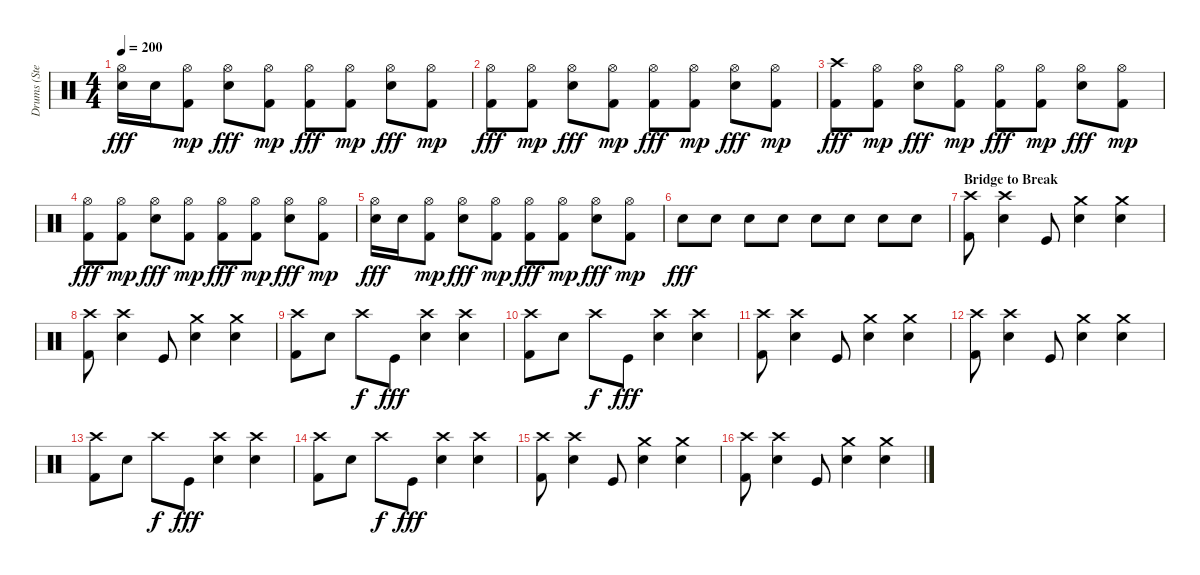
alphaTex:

\track ("Drums (Stevo32)" "Drums (Ste") {instrument percussion}
\staff {score}
\articulation defaults
\ts (4 4)
\tempo 200
\clef neutral
\ks c
("Electric Snare (hit)" "Hi-Hat (open)").16{dy fff} "Electric Snare (hit)".16 ("Kick (hit) 2" "Hi-Hat (open)").8{dy mp} ("Electric Snare (hit)" "Hi-Hat (open)").8{dy fff} ("Kick (hit) 2" "Hi-Hat (open)").8{dy mp} ("Kick (hit) 2" "Hi-Hat (open)").8{dy fff} ("Kick (hit) 2" "Hi-Hat (open)").8{dy mp} ("Electric Snare (hit)" "Hi-Hat (open)").8{dy fff} ("Kick (hit) 2" "Hi-Hat (open)").8{dy mp} |
("Kick (hit) 2" "Hi-Hat (open)").8{dy fff} ("Kick (hit) 2" "Hi-Hat (open)").8{dy mp} ("Electric Snare (hit)" "Hi-Hat (open)").8{dy fff} ("Kick (hit) 2" "Hi-Hat (open)").8{dy mp} ("Kick (hit) 2" "Hi-Hat (open)").8{dy fff} ("Kick (hit) 2" "Hi-Hat (open)").8{dy mp} ("Electric Snare (hit)" "Hi-Hat (open)").8{dy fff} ("Kick (hit) 2" "Hi-Hat (open)").8{dy mp} |
("Kick (hit) 2" "Crash high (hit)").8{dy fff} ("Kick (hit) 2" "Hi-Hat (open)").8{dy mp} ("Electric Snare (hit)" "Hi-Hat (open)").8{dy fff} ("Kick (hit) 2" "Hi-Hat (open)").8{dy mp} ("Kick (hit) 2" "Hi-Hat (open)").8{dy fff} ("Kick (hit) 2" "Hi-Hat (open)").8{dy mp} ("Electric Snare (hit)" "Hi-Hat (open)").8{dy fff} ("Kick (hit) 2" "Hi-Hat (open)").8{dy mp} |
("Kick (hit) 2" "Hi-Hat (open)").8{dy fff} ("Kick (hit) 2" "Hi-Hat (open)").8{dy mp} ("Electric Snare (hit)" "Hi-Hat (open)").8{dy fff} ("Kick (hit) 2" "Hi-Hat (open)").8{dy mp} ("Kick (hit) 2" "Hi-Hat (open)").8{dy fff} ("Kick (hit) 2" "Hi-Hat (open)").8{dy mp} ("Electric Snare (hit)" "Hi-Hat (open)").8{dy fff} ("Kick (hit) 2" "Hi-Hat (open)").8{dy mp} |
("Electric Snare (hit)" "Hi-Hat (open)").16{dy fff} "Electric Snare (hit)".16 ("Kick (hit) 2" "Hi-Hat (open)").8{dy mp} ("Electric Snare (hit)" "Hi-Hat (open)").8{dy fff} ("Kick (hit) 2" "Hi-Hat (open)").8{dy mp} ("Kick (hit) 2" "Hi-Hat (open)").8{dy fff} ("Kick (hit) 2" "Hi-Hat (open)").8{dy mp} ("Electric Snare (hit)" "Hi-Hat (open)").8{dy fff} ("Kick (hit) 2" "Hi-Hat (open)").8{dy mp} |
"Electric Snare (hit)".8{dy fff} "Electric Snare (hit)".8 "Electric Snare (hit)".8 "Electric Snare (hit)".8 "Electric Snare (hit)".8 "Electric Snare (hit)".8 "Electric Snare (hit)".8 "Electric Snare (hit)".8 |
\section ("" "Bridge to Break")
("Kick (hit) 2" "Crash high (hit)").8 ("Electric Snare (hit)" "Crash high (hit)").4 "Kick (hit)".8 ("Electric Snare (hit)" "Crash medium (hit)").4 ("Electric Snare (hit)" "Crash medium (hit)").4 |
("Kick (hit) 2" "Crash high (hit)").8 ("Electric Snare (hit)" "Crash high (hit)").4 "Kick (hit)".8 ("Electric Snare (hit)" "Crash medium (hit)").4 ("Electric Snare (hit)" "Crash medium (hit)").4 |
("Kick (hit) 2" "Crash high (hit)").8 "Electric Snare (hit)".8 "Crash high (hit)".8{dy f} "Kick (hit)".8{dy fff} ("Electric Snare (hit)" "Crash high (hit)").4 ("Electric Snare (hit)" "Crash high (hit)").4 |
("Kick (hit) 2" "Crash high (hit)").8 "Electric Snare (hit)".8 "Crash high (hit)".8{dy f} "Kick (hit)".8{dy fff} ("Electric Snare (hit)" "Crash high (hit)").4 ("Electric Snare (hit)" "Crash high (hit)").4 |
("Kick (hit) 2" "Crash high (hit)").8 ("Electric Snare (hit)" "Crash high (hit)").4 "Kick (hit)".8 ("Electric Snare (hit)" "Crash medium (hit)").4 ("Electric Snare (hit)" "Crash medium (hit)").4 |
("Kick (hit) 2" "Crash high (hit)").8 ("Electric Snare (hit)" "Crash high (hit)").4 "Kick (hit)".8 ("Electric Snare (hit)" "Crash medium (hit)").4 ("Electric Snare (hit)" "Crash medium (hit)").4 |
("Kick (hit) 2" "Crash high (hit)").8 "Electric Snare (hit)".8 "Crash high (hit)".8{dy f} "Kick (hit)".8{dy fff} ("Electric Snare (hit)" "Crash high (hit)").4 ("Electric Snare (hit)" "Crash high (hit)").4 |
("Kick (hit) 2" "Crash high (hit)").8 "Electric Snare (hit)".8 "Crash high (hit)".8{dy f} "Kick (hit)".8{dy fff} ("Electric Snare (hit)" "Crash high (hit)").4 ("Electric Snare (hit)" "Crash high (hit)").4 |
("Kick (hit) 2" "Crash high (hit)").8 ("Electric Snare (hit)" "Crash high (hit)").4 "Kick (hit)".8 ("Electric Snare (hit)" "Crash medium (hit)").4 ("Electric Snare (hit)" "Crash medium (hit)").4 |
("Kick (hit) 2" "Crash high (hit)").8 ("Electric Snare (hit)" "Crash high (hit)").4 "Kick (hit)".8 ("Electric Snare (hit)" "Crash medium (hit)").4 ("Electric Snare (hit)" "Crash medium (hit)").4
